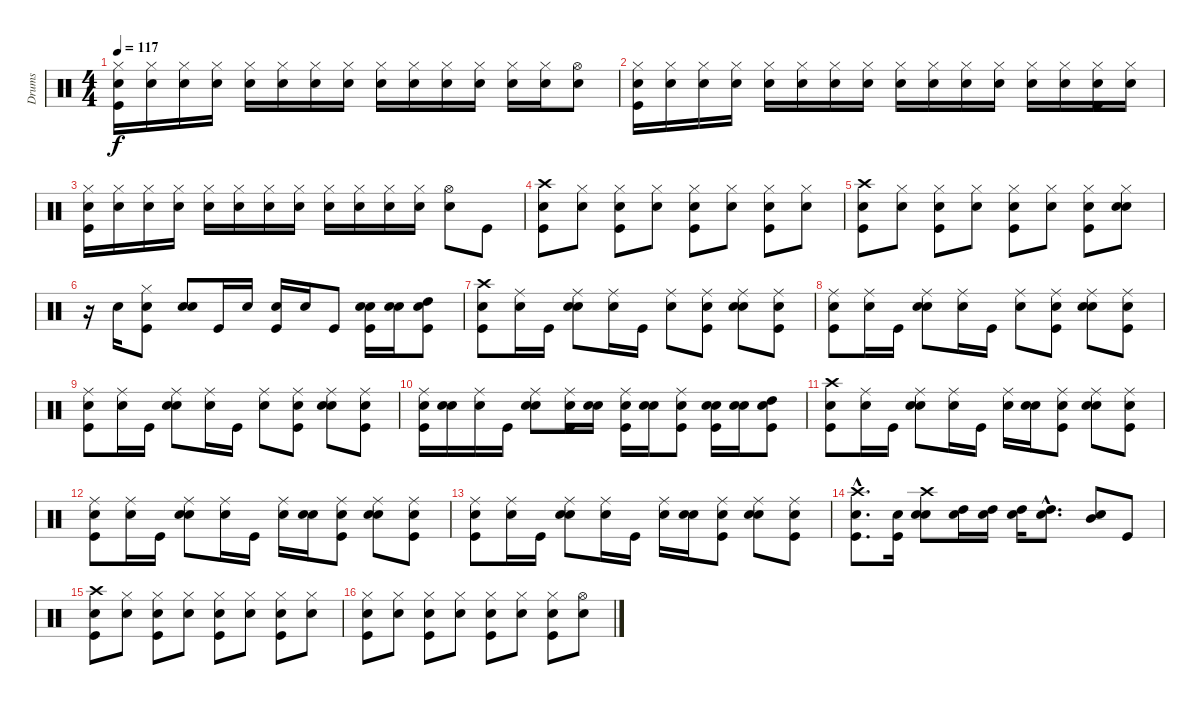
\track ("Drums" "Drums") {instrument percussion}
\staff {score}
\articulation defaults
\ts (4 4)
\tempo 117
\clef neutral
\ks c
("Snare (hit)" "Kick (hit)" "Hi-Hat (closed)").16{dy f} ("Snare (hit)" "Hi-Hat (closed)").16 ("Snare (hit)" "Hi-Hat (closed)").16 ("Snare (hit)" "Hi-Hat (closed)").16 ("Snare (hit)" "Hi-Hat (closed)").16 ("Snare (hit)" "Hi-Hat (closed)").16 ("Snare (hit)" "Hi-Hat (closed)").16 ("Snare (hit)" "Hi-Hat (closed)").16 ("Snare (hit)" "Hi-Hat (closed)").16 ("Snare (hit)" "Hi-Hat (closed)").16 ("Snare (hit)" "Hi-Hat (closed)").16 ("Snare (hit)" "Hi-Hat (closed)").16 ("Snare (hit)" "Hi-Hat (closed)").16 ("Snare (hit)" "Hi-Hat (closed)").16 ("Snare (hit)" "Hi-Hat (open)").8 |
("Snare (hit)" "Kick (hit)" "Hi-Hat (closed)").16 ("Snare (hit)" "Hi-Hat (closed)").16 ("Snare (hit)" "Hi-Hat (closed)").16 ("Snare (hit)" "Hi-Hat (closed)").16 ("Snare (hit)" "Hi-Hat (closed)").16 ("Snare (hit)" "Hi-Hat (closed)").16 ("Snare (hit)" "Hi-Hat (closed)").16 ("Snare (hit)" "Hi-Hat (closed)").16 ("Snare (hit)" "Hi-Hat (closed)").16 ("Snare (hit)" "Hi-Hat (closed)").16 ("Snare (hit)" "Hi-Hat (closed)").16 ("Snare (hit)" "Hi-Hat (closed)").16 ("Snare (hit)" "Hi-Hat (closed)").16 ("Snare (hit)" "Hi-Hat (closed)").16 ("Snare (hit)" "Kick (hit)" "Hi-Hat (closed)").16 ("Snare (hit)" "Hi-Hat (closed)").16 |
("Snare (hit)" "Kick (hit)" "Hi-Hat (closed)").16 ("Snare (hit)" "Hi-Hat (closed)").16 ("Snare (hit)" "Hi-Hat (closed)").16 ("Snare (hit)" "Hi-Hat (closed)").16 ("Snare (hit)" "Hi-Hat (closed)").16 ("Snare (hit)" "Hi-Hat (closed)").16 ("Snare (hit)" "Hi-Hat (closed)").16 ("Snare (hit)" "Hi-Hat (closed)").16 ("Snare (hit)" "Hi-Hat (closed)").16 ("Snare (hit)" "Hi-Hat (closed)").16 ("Snare (hit)" "Hi-Hat (closed)").16 ("Snare (hit)" "Hi-Hat (closed)").16 ("Snare (hit)" "Hi-Hat (open)").8 "Kick (hit)".8 |
("Snare (hit)" "Kick (hit)" "Crash high (hit)").8 ("Snare (hit)" "Hi-Hat (closed)").8 ("Snare (hit)" "Kick (hit)" "Hi-Hat (closed)").8 ("Snare (hit)" "Hi-Hat (closed)").8 ("Snare (hit)" "Kick (hit)" "Hi-Hat (closed)").8 ("Snare (hit)" "Hi-Hat (closed)").8 ("Snare (hit)" "Kick (hit)" "Hi-Hat (closed)").8 ("Snare (hit)" "Hi-Hat (closed)").8 |
("Snare (hit)" "Kick (hit)" "Crash high (hit)").8 ("Snare (hit)" "Hi-Hat (closed)").8 ("Snare (hit)" "Kick (hit)" "Hi-Hat (closed)").8 ("Snare (hit)" "Hi-Hat (closed)").8 ("Snare (hit)" "Kick (hit)" "Hi-Hat (closed)").8 ("Snare (hit)" "Hi-Hat (closed)").8 ("Snare (hit)" "Kick (hit)" "Hi-Hat (closed)").8 ("Snare (hit)" "Electric Snare (hit)" "Hi-Hat (closed)").8 |
r.16 "Electric Snare (hit)".16 ("Snare (hit)" "Kick (hit)" "Hi-Hat (closed)").8 ("Snare (hit)" "Electric Snare (hit)").8 "Kick (hit)".16 "Electric Snare (hit)".16 ("Snare (hit)" "Kick (hit)").16 "Electric Snare (hit)".16 "Kick (hit)".8 ("Snare (hit)" "Kick (hit)" "Electric Snare (hit)").16 ("Snare (hit)" "Electric Snare (hit)").16 ("Snare (hit)" "Kick (hit)" "High Tom (hit)").8 |
("Snare (hit)" "Kick (hit)" "Crash high (hit)").8 ("Snare (hit)" "Ride (middle)").16 "Kick (hit)".16 ("Snare (hit)" "Electric Snare (hit)" "Ride (middle)").8 ("Snare (hit)" "Ride (middle)").16 "Kick (hit)".16 ("Snare (hit)" "Ride (middle)").8 ("Snare (hit)" "Kick (hit)" "Ride (middle)").8 ("Snare (hit)" "Electric Snare (hit)" "Ride (middle)").8 ("Snare (hit)" "Kick (hit)" "Ride (middle)").8 |
("Snare (hit)" "Kick (hit)" "Ride (middle)").8 ("Snare (hit)" "Ride (middle)").16 "Kick (hit)".16 ("Snare (hit)" "Electric Snare (hit)" "Ride (middle)").8 ("Snare (hit)" "Ride (middle)").16 "Kick (hit)".16 ("Snare (hit)" "Ride (middle)").8 ("Snare (hit)" "Kick (hit)" "Ride (middle)").8 ("Snare (hit)" "Electric Snare (hit)" "Ride (middle)").8 ("Snare (hit)" "Kick (hit)" "Ride (middle)").8 |
("Snare (hit)" "Kick (hit)" "Ride (middle)").8 ("Snare (hit)" "Ride (middle)").16 "Kick (hit)".16 ("Snare (hit)" "Electric Snare (hit)" "Ride (middle)").8 ("Snare (hit)" "Ride (middle)").16 "Kick (hit)".16 ("Snare (hit)" "Ride (middle)").8 ("Snare (hit)" "Kick (hit)" "Ride (middle)").8 ("Snare (hit)" "Electric Snare (hit)" "Ride (middle)").8 ("Snare (hit)" "Kick (hit)" "Ride (middle)").8 |
("Snare (hit)" "Kick (hit)" "Ride (middle)").16 ("Snare (hit)" "Electric Snare (hit)").16 ("Snare (hit)" "Ride (middle)").16 "Kick (hit)".16 ("Snare (hit)" "Electric Snare (hit)" "Ride (middle)").8 ("Snare (hit)" "Kick (hit)" "Ride (middle)").16 ("Snare (hit)" "Electric Snare (hit)").16 ("Snare (hit)" "Kick (hit)" "Ride (middle)").16 ("Snare (hit)" "Electric Snare (hit)").16 ("Snare (hit)" "Kick (hit)" "Ride (middle)").8 ("Snare (hit)" "Kick (hit)" "Electric Snare (hit)").16 ("Snare (hit)" "Electric Snare (hit)").16 ("Snare (hit)" "Kick (hit)" "High Tom (hit)").8 |
("Snare (hit)" "Kick (hit)" "Crash high (hit)").8 ("Snare (hit)" "Ride (middle)").16 "Kick (hit)".16 ("Snare (hit)" "Electric Snare (hit)" "Ride (middle)").8 ("Snare (hit)" "Ride (middle)").16 "Kick (hit)".16 ("Snare (hit)" "Ride (middle)").16 ("Snare (hit)" "Electric Snare (hit)").16 ("Snare (hit)" "Kick (hit)" "Ride (middle)").8 ("Snare (hit)" "Electric Snare (hit)" "Ride (middle)").8 ("Snare (hit)" "Kick (hit)" "Ride (middle)").8 |
("Snare (hit)" "Kick (hit)" "Ride (middle)").8 ("Snare (hit)" "Ride (middle)").16 "Kick (hit)".16 ("Snare (hit)" "Electric Snare (hit)" "Ride (middle)").8 ("Snare (hit)" "Ride (middle)").16 "Kick (hit)".16 ("Snare (hit)" "Ride (middle)").16 ("Snare (hit)" "Electric Snare (hit)").16 ("Snare (hit)" "Kick (hit)" "Ride (middle)").8 ("Snare (hit)" "Electric Snare (hit)" "Ride (middle)").8 ("Snare (hit)" "Kick (hit)" "Ride (middle)").8 |
("Snare (hit)" "Kick (hit)" "Ride (middle)").8 ("Snare (hit)" "Ride (middle)").16 "Kick (hit)".16 ("Snare (hit)" "Electric Snare (hit)" "Ride (middle)").8 ("Snare (hit)" "Ride (middle)").16 "Kick (hit)".16 ("Snare (hit)" "Ride (middle)").16 ("Snare (hit)" "Electric Snare (hit)").16 ("Snare (hit)" "Kick (hit)" "Ride (middle)").8 ("Snare (hit)" "Electric Snare (hit)" "Ride (middle)").8 ("Snare (hit)" "Kick (hit)" "Ride (middle)").8 |
("Snare (hit)"{hac} "Kick (hit)"{hac} "Crash high (hit)"{hac}).8{d} ("Snare (hit)" "Kick (hit)").16 ("Snare (hit)" "Electric Snare (hit)" "Crash high (hit)").8 ("Snare (hit)" "High Tom (hit)").16 ("Snare (hit)" "High Tom (hit)").16 ("Snare (hit)" "High Tom (hit)").16 ("Snare (hit)"{hac} "High Tom (hit)"{hac}).8{d} ("Snare (hit)" "Mid Tom (hit)").8 "Kick (hit)".8 |
("Snare (hit)" "Kick (hit)" "Crash high (hit)").8 ("Snare (hit)" "Hi-Hat (closed)").8 ("Snare (hit)" "Kick (hit)" "Hi-Hat (closed)").8 ("Snare (hit)" "Hi-Hat (closed)").8 ("Snare (hit)" "Kick (hit)" "Hi-Hat (closed)").8 ("Snare (hit)" "Hi-Hat (closed)").8 ("Snare (hit)" "Kick (hit)" "Hi-Hat (closed)").8 ("Snare (hit)" "Hi-Hat (closed)").8 |
("Snare (hit)" "Kick (hit)" "Hi-Hat (closed)").8 ("Snare (hit)" "Hi-Hat (closed)").8 ("Snare (hit)" "Kick (hit)" "Hi-Hat (closed)").8 ("Snare (hit)" "Hi-Hat (closed)").8 ("Snare (hit)" "Kick (hit)" "Hi-Hat (closed)").8 ("Snare (hit)" "Hi-Hat (closed)").8 ("Snare (hit)" "Kick (hit)" "Hi-Hat (closed)").8 ("Snare (hit)" "Hi-Hat (open)").8
